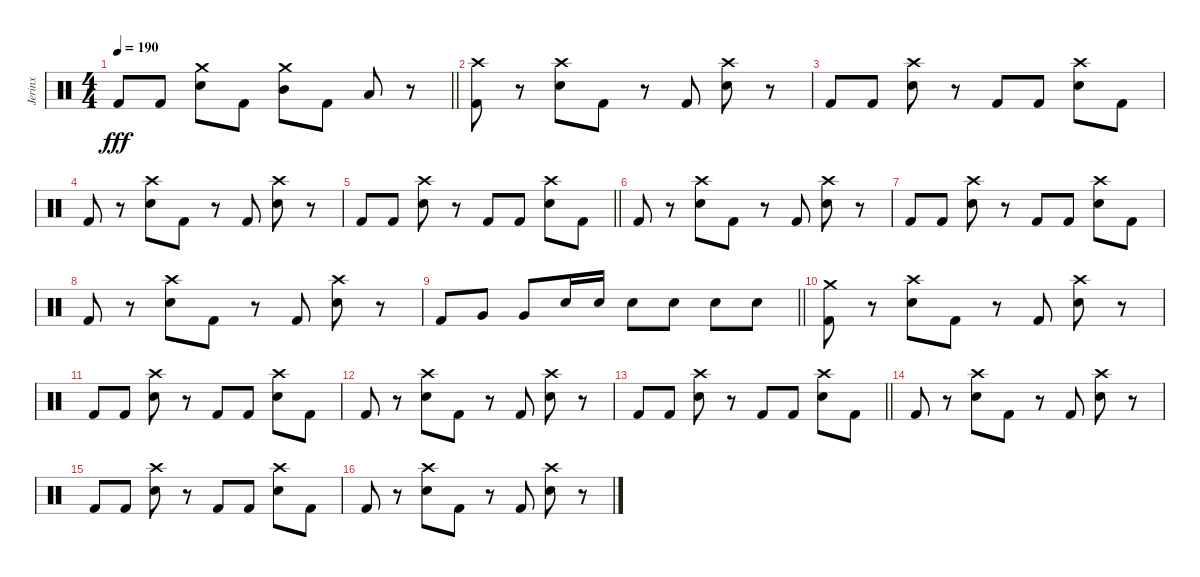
\track ("Jerinx" "Jerinx") {instrument percussion}
\staff {score}
\articulation defaults
\ts (4 4)
\tempo 190
\clef neutral
\barLineRight lightlight
\ks c "Kick (hit) 2".8{dy fff} "Kick (hit) 2".8
("Snare (hit) 2" "Crash medium (hit)").8 "Kick (hit) 2".8 ("Mid Tom (hit)" "Crash medium (hit)").8 "Kick (hit) 2".8 "Low Tom (hit)".8 r.8 |
("Kick (hit) 2" "Crash high (hit)").8 r.8 ("Electric Snare (hit)" "Crash high (hit)").8 "Kick (hit) 2".8 r.8 "Kick (hit) 2".8 ("Electric Snare (hit)" "Crash high (hit)").8 r.8 |
"Kick (hit) 2".8 "Kick (hit) 2".8 ("Electric Snare (hit)" "Crash high (hit)").8 r.8 "Kick (hit) 2".8 "Kick (hit) 2".8 ("Electric Snare (hit)" "Crash high (hit)").8 "Kick (hit) 2".8 |
"Kick (hit) 2".8 r.8 ("Electric Snare (hit)" "Crash high (hit)").8 "Kick (hit) 2".8 r.8 "Kick (hit) 2".8 ("Electric Snare (hit)" "Crash high (hit)").8 r.8 |
\barLineRight lightlight "Kick (hit) 2".8 "Kick (hit) 2".8
("Electric Snare (hit)" "Crash high (hit)").8 r.8 "Kick (hit) 2".8 "Kick (hit) 2".8 ("Electric Snare (hit)" "Crash high (hit)").8 "Kick (hit) 2".8 |
"Kick (hit) 2".8 r.8 ("Electric Snare (hit)" "Crash high (hit)").8 "Kick (hit) 2".8 r.8 "Kick (hit) 2".8 ("Electric Snare (hit)" "Crash high (hit)").8 r.8 |
"Kick (hit) 2".8 "Kick (hit) 2".8 ("Electric Snare (hit)" "Crash high (hit)").8 r.8 "Kick (hit) 2".8 "Kick (hit) 2".8 ("Electric Snare (hit)" "Crash high (hit)").8 "Kick (hit) 2".8 |
"Kick (hit) 2".8 r.8 ("Electric Snare (hit)" "Crash high (hit)").8 "Kick (hit) 2".8 r.8 "Kick (hit) 2".8 ("Electric Snare (hit)" "Crash high (hit)").8 r.8 |
\barLineRight lightlight "Kick (hit) 2".8 "Very Low Tom (hit)".8 "Very Low Tom (hit)".8 "Electric Snare (hit)".16 "Electric Snare (hit)".16 "Electric Snare (hit)".8 "Electric Snare (hit)".8 "Electric Snare (hit)".8 "Electric Snare (hit)".8
|
("Kick (hit) 2" "Crash medium (hit)").8 r.8 ("Electric Snare (hit)" "Crash high (hit)").8 "Kick (hit) 2".8 r.8 "Kick (hit) 2".8 ("Electric Snare (hit)" "Crash high (hit)").8 r.8 |
"Kick (hit) 2".8 "Kick (hit) 2".8 ("Electric Snare (hit)" "Crash high (hit)").8 r.8 "Kick (hit) 2".8 "Kick (hit) 2".8 ("Electric Snare (hit)" "Crash high (hit)").8 "Kick (hit) 2".8 |
"Kick (hit) 2".8 r.8 ("Electric Snare (hit)" "Crash high (hit)").8 "Kick (hit) 2".8 r.8 "Kick (hit) 2".8 ("Electric Snare (hit)" "Crash high (hit)").8 r.8 |
\barLineRight lightlight "Kick (hit) 2".8 "Kick (hit) 2".8
("Electric Snare (hit)" "Crash high (hit)").8 r.8 "Kick (hit) 2".8 "Kick (hit) 2".8 ("Electric Snare (hit)" "Crash high (hit)").8 "Kick (hit) 2".8 |
"Kick (hit) 2".8 r.8 ("Electric Snare (hit)" "Crash high (hit)").8 "Kick (hit) 2".8 r.8 "Kick (hit) 2".8 ("Electric Snare (hit)" "Crash high (hit)").8 r.8 |
"Kick (hit) 2".8 "Kick (hit) 2".8 ("Electric Snare (hit)" "Crash high (hit)").8 r.8 "Kick (hit) 2".8 "Kick (hit) 2".8 ("Electric Snare (hit)" "Crash high (hit)").8 "Kick (hit) 2".8 |
"Kick (hit) 2".8 r.8 ("Electric Snare (hit)" "Crash high (hit)").8 "Kick (hit) 2".8 r.8 "Kick (hit) 2".8 ("Electric Snare (hit)" "Crash high (hit)").8 r.8
